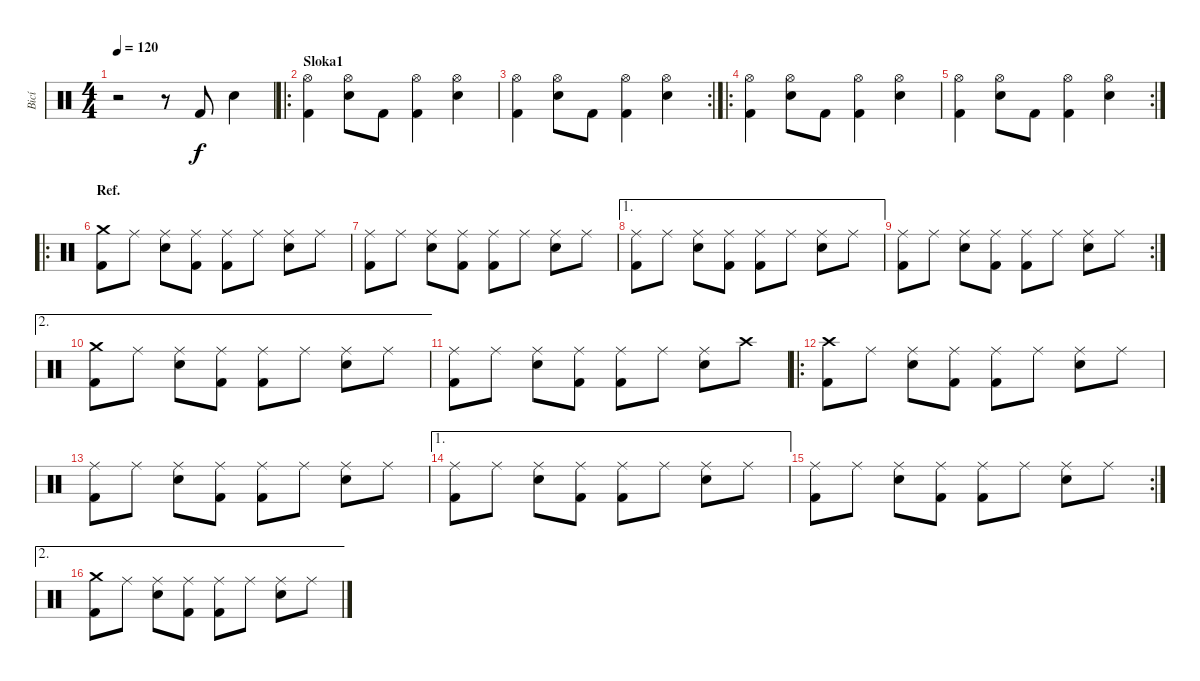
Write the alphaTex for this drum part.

\track ("Bicí" "Bicí") {instrument percussion}
\staff {score}
\articulation defaults
\ts (4 4)
\tempo 120
\clef neutral
\ks c
r.2{dy f} r.8 "Kick (hit) 2".8 "Snare (hit) 2".4 |
\ro
\section ("" "Sloka1")
("Hi-Hat (open)" "Kick (hit) 2").4 ("Hi-Hat (open)" "Snare (hit) 2").8 "Kick (hit) 2".8 ("Hi-Hat (open)" "Kick (hit) 2").4 ("Hi-Hat (open)" "Snare (hit) 2").4 |
\rc 2
("Hi-Hat (open)" "Kick (hit) 2").4 ("Hi-Hat (open)" "Snare (hit) 2").8 "Kick (hit) 2".8 ("Hi-Hat (open)" "Kick (hit) 2").4 ("Hi-Hat (open)" "Snare (hit) 2").4 |
\ro
("Hi-Hat (open)" "Kick (hit) 2").4 ("Hi-Hat (open)" "Snare (hit) 2").8 "Kick (hit) 2".8 ("Hi-Hat (open)" "Kick (hit) 2").4 ("Hi-Hat (open)" "Snare (hit) 2").4 |
\rc 2
("Hi-Hat (open)" "Kick (hit) 2").4 ("Hi-Hat (open)" "Snare (hit) 2").8 "Kick (hit) 2".8 ("Hi-Hat (open)" "Kick (hit) 2").4 ("Hi-Hat (open)" "Snare (hit) 2").4 |
\ro
\section ("" "Ref.")
("Crash medium (hit)" "Kick (hit) 2").8 "Ride (middle)".8 ("Ride (middle)" "Snare (hit) 2").8 ("Ride (middle)" "Kick (hit) 2").8 ("Ride (middle)" "Kick (hit) 2").8 "Ride (middle)".8 ("Ride (middle)" "Snare (hit) 2").8 "Ride (middle)".8 |
("Ride (middle)" "Kick (hit) 2").8 "Ride (middle)".8 ("Ride (middle)" "Snare (hit) 2").8 ("Ride (middle)" "Kick (hit) 2").8 ("Ride (middle)" "Kick (hit) 2").8 "Ride (middle)".8 ("Ride (middle)" "Snare (hit) 2").8 "Ride (middle)".8 |
\ae 1
("Ride (middle)" "Kick (hit) 2").8 "Ride (middle)".8 ("Ride (middle)" "Snare (hit) 2").8 ("Ride (middle)" "Kick (hit) 2").8 ("Ride (middle)" "Kick (hit) 2").8 "Ride (middle)".8 ("Ride (middle)" "Snare (hit) 2").8 "Ride (middle)".8 |
\rc 2
("Ride (middle)" "Kick (hit) 2").8 "Ride (middle)".8 ("Ride (middle)" "Snare (hit) 2").8 ("Ride (middle)" "Kick (hit) 2").8 ("Ride (middle)" "Kick (hit) 2").8 "Ride (middle)".8 ("Ride (middle)" "Snare (hit) 2").8 "Ride (middle)".8 |
\ae 2
("Crash medium (hit)" "Kick (hit) 2").8 "Ride (middle)".8 ("Ride (middle)" "Snare (hit) 2").8 ("Ride (middle)" "Kick (hit) 2").8 ("Ride (middle)" "Kick (hit) 2").8 "Ride (middle)".8 ("Ride (middle)" "Snare (hit) 2").8 "Ride (middle)".8 |
("Ride (middle)" "Kick (hit) 2").8 "Ride (middle)".8 ("Ride (middle)" "Snare (hit) 2").8 ("Ride (middle)" "Kick (hit) 2").8 ("Ride (middle)" "Kick (hit) 2").8 "Ride (middle)".8 ("Ride (middle)" "Snare (hit) 2").8 "Crash high (hit)".8{balance 0} |
\ro
("Crash high (hit)" "Kick (hit) 2").8{balance 16} "Ride (middle)".8{balance 8} ("Ride (middle)" "Snare (hit) 2").8 ("Ride (middle)" "Kick (hit) 2").8 ("Ride (middle)" "Kick (hit) 2").8 "Ride (middle)".8 ("Ride (middle)" "Snare (hit) 2").8 "Ride (middle)".8 |
("Ride (middle)" "Kick (hit) 2").8 "Ride (middle)".8 ("Ride (middle)" "Snare (hit) 2").8 ("Ride (middle)" "Kick (hit) 2").8 ("Ride (middle)" "Kick (hit) 2").8 "Ride (middle)".8 ("Ride (middle)" "Snare (hit) 2").8 "Ride (middle)".8 |
\ae 1
("Ride (middle)" "Kick (hit) 2").8 "Ride (middle)".8 ("Ride (middle)" "Snare (hit) 2").8 ("Ride (middle)" "Kick (hit) 2").8 ("Ride (middle)" "Kick (hit) 2").8 "Ride (middle)".8 ("Ride (middle)" "Snare (hit) 2").8 "Ride (middle)".8 |
\rc 2
("Ride (middle)" "Kick (hit) 2").8 "Ride (middle)".8 ("Ride (middle)" "Snare (hit) 2").8 ("Ride (middle)" "Kick (hit) 2").8 ("Ride (middle)" "Kick (hit) 2").8 "Ride (middle)".8 ("Ride (middle)" "Snare (hit) 2").8 "Ride (middle)".8 |
\ae 2
("Crash medium (hit)" "Kick (hit) 2").8 "Ride (middle)".8 ("Ride (middle)" "Snare (hit) 2").8 ("Ride (middle)" "Kick (hit) 2").8 ("Ride (middle)" "Kick (hit) 2").8 "Ride (middle)".8 ("Ride (middle)" "Snare (hit) 2").8 "Ride (middle)".8
